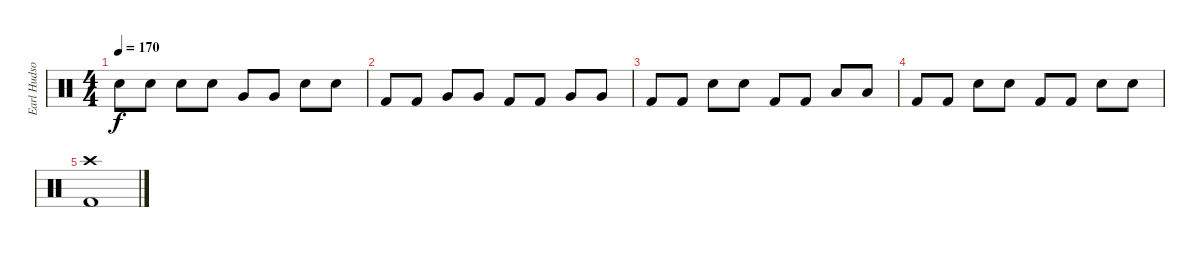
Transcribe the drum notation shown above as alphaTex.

\track ("Earl Hudson" "Earl Hudso") {instrument percussion}
\staff {score}
\articulation defaults
\ts (4 4)
\tempo 170
\clef neutral
\ks c "Snare (hit) 2".8{dy f} "Snare (hit) 2".8 "Electric Snare (hit)".8 "Electric Snare (hit)".8 "Very Low Tom (hit)".8 "Very Low Tom (hit)".8 "Electric Snare (hit)".8 "Electric Snare (hit)".8
|
"Kick (hit) 2".8 "Kick (hit) 2".8 "Very Low Tom (hit)".8 "Very Low Tom (hit)".8 "Kick (hit) 2".8 "Kick (hit) 2".8 "Very Low Tom (hit)".8 "Very Low Tom (hit)".8 |
"Kick (hit) 2".8 "Kick (hit) 2".8 "Electric Snare (hit)".8 "Electric Snare (hit)".8 "Kick (hit) 2".8 "Kick (hit) 2".8 "Low Tom (hit)".8 "Low Tom (hit)".8 |
"Kick (hit) 2".8 "Kick (hit) 2".8 "Snare (hit) 2".8 "Snare (hit) 2".8 "Kick (hit) 2".8 "Kick (hit) 2".8 "Snare (hit) 2".8 "Snare (hit) 2".8 |
("Crash high (hit)" "Kick (hit) 2").1
